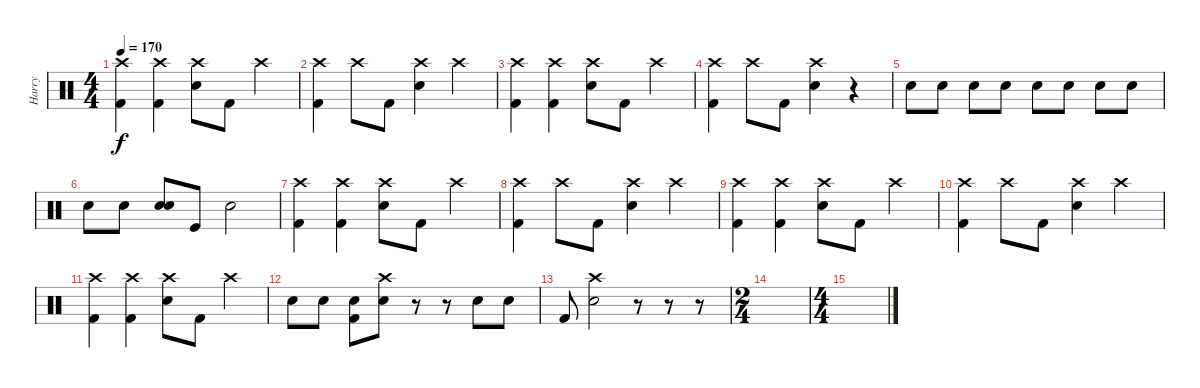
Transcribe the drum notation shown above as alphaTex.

\track ("Harry" "Harry") {instrument percussion}
\staff {score}
\articulation defaults
\ts (4 4)
\tempo 170
\clef neutral
\ks c
("Crash high (hit)" "Kick (hit) 2").4{dy f} ("Crash high (hit)" "Kick (hit) 2").4 ("Crash high (hit)" "Snare (hit) 2").8 "Kick (hit) 2".8 "Crash high (hit)".4 |
("Crash high (hit)" "Kick (hit) 2").4 "Crash high (hit)".8 "Kick (hit) 2".8 ("Crash high (hit)" "Snare (hit) 2").4 "Crash high (hit)".4 |
("Crash high (hit)" "Kick (hit) 2").4 ("Crash high (hit)" "Kick (hit) 2").4 ("Crash high (hit)" "Snare (hit) 2").8 "Kick (hit) 2".8 "Crash high (hit)".4 |
("Crash high (hit)" "Kick (hit) 2").4 "Crash high (hit)".8 "Kick (hit) 2".8 ("Crash high (hit)" "Snare (hit) 2").4 r.4 |
"Snare (hit) 2".8 "Snare (hit) 2".8 "Snare (hit) 2".8 "Snare (hit) 2".8 "Snare (hit) 2".8 "Snare (hit) 2".8 "Snare (hit) 2".8 "Snare (hit) 2".8 |
"Snare (hit) 2".8 "Snare (hit) 2".8 ("Snare (hit) 2" "Snare (hit) 2").8 "Kick (hit)".8 "Snare (hit) 2".2 |
("Crash high (hit)" "Kick (hit) 2").4 ("Crash high (hit)" "Kick (hit) 2").4 ("Crash high (hit)" "Snare (hit) 2").8 "Kick (hit) 2".8 "Crash high (hit)".4 |
("Crash high (hit)" "Kick (hit) 2").4 "Crash high (hit)".8 "Kick (hit) 2".8 ("Crash high (hit)" "Snare (hit) 2").4 "Crash high (hit)".4 |
("Crash high (hit)" "Kick (hit) 2").4 ("Crash high (hit)" "Kick (hit) 2").4 ("Crash high (hit)" "Snare (hit) 2").8 "Kick (hit) 2".8 "Crash high (hit)".4 |
("Crash high (hit)" "Kick (hit) 2").4 "Crash high (hit)".8 "Kick (hit) 2".8 ("Crash high (hit)" "Snare (hit) 2").4 "Crash high (hit)".4 |
("Crash high (hit)" "Kick (hit) 2").4 ("Crash high (hit)" "Kick (hit) 2").4 ("Crash high (hit)" "Snare (hit) 2").8 "Kick (hit) 2".8 "Crash high (hit)".4 |
"Snare (hit) 2".8 "Snare (hit) 2".8 ("Snare (hit) 2" "Kick (hit) 2").8 ("Snare (hit) 2" "Crash high (hit)").8 r.8 r.8 "Snare (hit) 2".8 "Snare (hit) 2".8 |
"Kick (hit) 2".8 ("Snare (hit) 2" "Crash high (hit)").2 r.8 r.8 r.8 |
\ts (2 4)
|
\ts (4 4)
